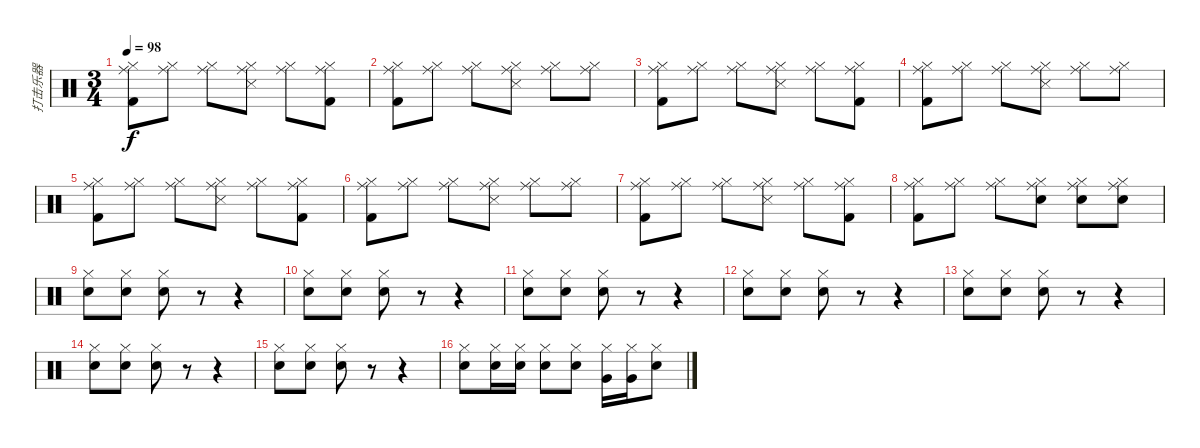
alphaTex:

\track ("打击乐器" "打击乐器") {instrument percussion}
\staff {score}
\articulation defaults
\ts (3 4)
\tempo 98
\clef neutral
\ks c
("Kick (hit) 2" "Hi-Hat (closed)" "Ride (middle)").8{dy f} ("Hi-Hat (closed)" "Ride (middle)").8 ("Hi-Hat (closed)" "Ride (middle)").8 ("Snare (side stick) 3" "Hi-Hat (closed)" "Ride (middle)").8 ("Hi-Hat (closed)" "Ride (middle)").8 ("Kick (hit) 2" "Hi-Hat (closed)" "Ride (middle)").8 |
("Kick (hit) 2" "Hi-Hat (closed)" "Ride (middle)").8 ("Hi-Hat (closed)" "Ride (middle)").8 ("Hi-Hat (closed)" "Ride (middle)").8 ("Snare (side stick) 3" "Hi-Hat (closed)" "Ride (middle)").8 ("Hi-Hat (closed)" "Ride (middle)").8 ("Hi-Hat (closed)" "Ride (middle)").8 |
("Kick (hit) 2" "Hi-Hat (closed)" "Ride (middle)").8 ("Hi-Hat (closed)" "Ride (middle)").8 ("Hi-Hat (closed)" "Ride (middle)").8 ("Snare (side stick) 3" "Hi-Hat (closed)" "Ride (middle)").8 ("Hi-Hat (closed)" "Ride (middle)").8 ("Kick (hit) 2" "Hi-Hat (closed)" "Ride (middle)").8 |
("Kick (hit) 2" "Hi-Hat (closed)" "Ride (middle)").8 ("Hi-Hat (closed)" "Ride (middle)").8 ("Hi-Hat (closed)" "Ride (middle)").8 ("Snare (side stick) 3" "Hi-Hat (closed)" "Ride (middle)").8 ("Hi-Hat (closed)" "Ride (middle)").8 ("Hi-Hat (closed)" "Ride (middle)").8 |
("Kick (hit) 2" "Hi-Hat (closed)" "Ride (middle)").8 ("Hi-Hat (closed)" "Ride (middle)").8 ("Hi-Hat (closed)" "Ride (middle)").8 ("Snare (side stick) 3" "Hi-Hat (closed)" "Ride (middle)").8 ("Hi-Hat (closed)" "Ride (middle)").8 ("Kick (hit) 2" "Hi-Hat (closed)" "Ride (middle)").8 |
("Kick (hit) 2" "Hi-Hat (closed)" "Ride (middle)").8 ("Hi-Hat (closed)" "Ride (middle)").8 ("Hi-Hat (closed)" "Ride (middle)").8 ("Snare (side stick) 3" "Hi-Hat (closed)" "Ride (middle)").8 ("Hi-Hat (closed)" "Ride (middle)").8 ("Hi-Hat (closed)" "Ride (middle)").8 |
("Kick (hit) 2" "Hi-Hat (closed)" "Ride (middle)").8 ("Hi-Hat (closed)" "Ride (middle)").8 ("Hi-Hat (closed)" "Ride (middle)").8 ("Snare (side stick) 3" "Hi-Hat (closed)" "Ride (middle)").8 ("Hi-Hat (closed)" "Ride (middle)").8 ("Kick (hit) 2" "Hi-Hat (closed)" "Ride (middle)").8 |
("Kick (hit) 2" "Hi-Hat (closed)" "Ride (middle)").8 ("Hi-Hat (closed)" "Ride (middle)").8 ("Hi-Hat (closed)" "Ride (middle)").8 ("Snare (hit) 2" "Hi-Hat (closed)" "Ride (middle)").8 ("Snare (hit) 2" "Hi-Hat (closed)" "Ride (middle)").8 ("Snare (hit) 2" "Hi-Hat (closed)" "Ride (middle)").8 |
("Snare (hit) 2" "Hi-Hat (closed)").8 ("Snare (hit) 2" "Hi-Hat (closed)").8 ("Snare (hit) 2" "Hi-Hat (closed)").8 r.8 r.4 |
("Snare (hit) 2" "Hi-Hat (closed)").8 ("Snare (hit) 2" "Hi-Hat (closed)").8 ("Snare (hit) 2" "Hi-Hat (closed)").8 r.8 r.4 |
("Snare (hit) 2" "Hi-Hat (closed)").8 ("Snare (hit) 2" "Hi-Hat (closed)").8 ("Snare (hit) 2" "Hi-Hat (closed)").8 r.8 r.4 |
("Snare (hit) 2" "Hi-Hat (closed)").8 ("Snare (hit) 2" "Hi-Hat (closed)").8 ("Snare (hit) 2" "Hi-Hat (closed)").8 r.8 r.4 |
("Snare (hit) 2" "Hi-Hat (closed)").8 ("Snare (hit) 2" "Hi-Hat (closed)").8 ("Snare (hit) 2" "Hi-Hat (closed)").8 r.8 r.4 |
("Snare (hit) 2" "Hi-Hat (closed)").8 ("Snare (hit) 2" "Hi-Hat (closed)").8 ("Snare (hit) 2" "Hi-Hat (closed)").8 r.8 r.4 |
("Snare (hit) 2" "Hi-Hat (closed)").8 ("Snare (hit) 2" "Hi-Hat (closed)").8 ("Snare (hit) 2" "Hi-Hat (closed)").8 r.8 r.4 |
("Snare (hit) 2" "Hi-Hat (closed)").8 ("Snare (hit) 2" "Hi-Hat (closed)").16 ("Snare (hit) 2" "Hi-Hat (closed)").16 ("Snare (hit) 2" "Hi-Hat (closed)").8 ("Snare (hit) 2" "Hi-Hat (closed)").8 ("Very Low Tom (hit)" "Hi-Hat (closed)").16 ("Very Low Tom (hit)" "Hi-Hat (closed)").16 ("Snare (hit) 2" "Hi-Hat (closed)").8
